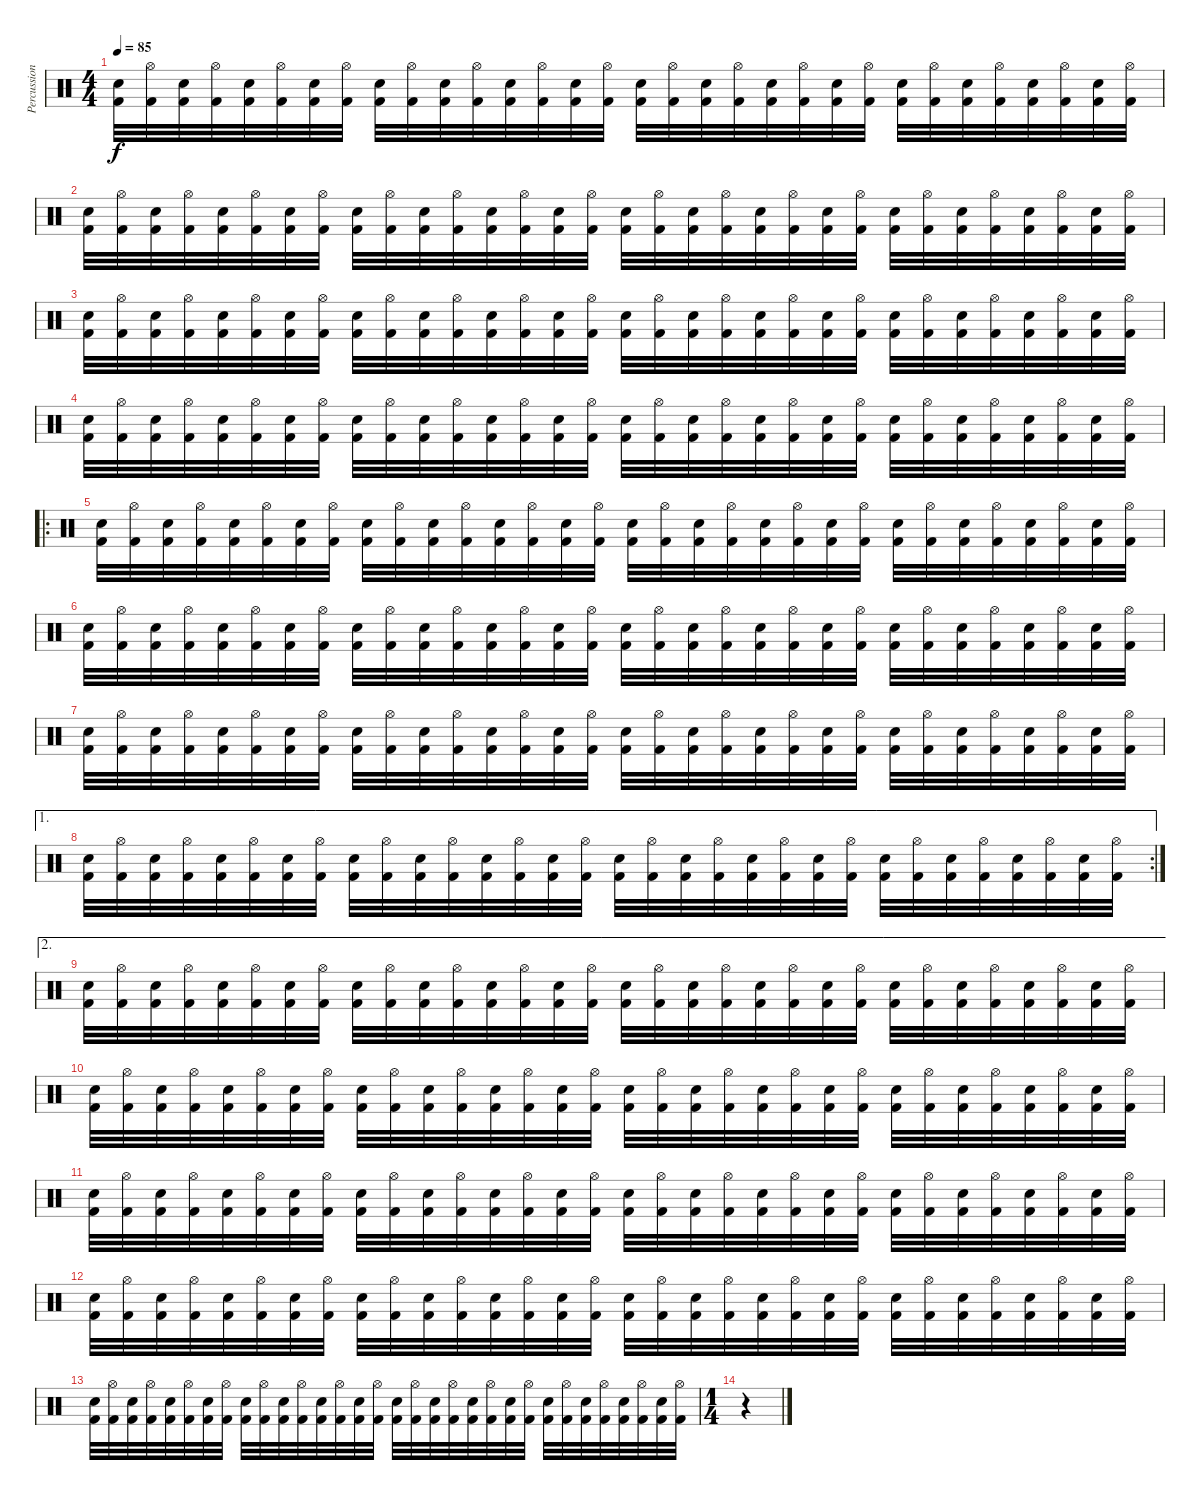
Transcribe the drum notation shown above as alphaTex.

\track ("Percussion" "Percussion") {instrument percussion}
\staff {score}
\articulation defaults
\ts (4 4)
\tempo 85
\clef neutral
\ks c
("Electric Snare (hit)" "Kick (hit) 2").32{dy f} ("Hi-Hat (open)" "Kick (hit) 2").32 ("Electric Snare (hit)" "Kick (hit) 2").32 ("Hi-Hat (open)" "Kick (hit) 2").32 ("Electric Snare (hit)" "Kick (hit) 2").32 ("Hi-Hat (open)" "Kick (hit) 2").32 ("Electric Snare (hit)" "Kick (hit) 2").32 ("Hi-Hat (open)" "Kick (hit) 2").32 ("Electric Snare (hit)" "Kick (hit) 2").32 ("Hi-Hat (open)" "Kick (hit) 2").32 ("Electric Snare (hit)" "Kick (hit) 2").32 ("Hi-Hat (open)" "Kick (hit) 2").32 ("Electric Snare (hit)" "Kick (hit) 2").32 ("Hi-Hat (open)" "Kick (hit) 2").32 ("Electric Snare (hit)" "Kick (hit) 2").32 ("Hi-Hat (open)" "Kick (hit) 2").32 ("Electric Snare (hit)" "Kick (hit) 2").32 ("Hi-Hat (open)" "Kick (hit) 2").32 ("Electric Snare (hit)" "Kick (hit) 2").32 ("Hi-Hat (open)" "Kick (hit) 2").32 ("Electric Snare (hit)" "Kick (hit) 2").32 ("Hi-Hat (open)" "Kick (hit) 2").32 ("Electric Snare (hit)" "Kick (hit) 2").32 ("Hi-Hat (open)" "Kick (hit) 2").32 ("Electric Snare (hit)" "Kick (hit) 2").32 ("Hi-Hat (open)" "Kick (hit) 2").32 ("Electric Snare (hit)" "Kick (hit) 2").32 ("Hi-Hat (open)" "Kick (hit) 2").32 ("Electric Snare (hit)" "Kick (hit) 2").32 ("Hi-Hat (open)" "Kick (hit) 2").32 ("Electric Snare (hit)" "Kick (hit) 2").32 ("Hi-Hat (open)" "Kick (hit) 2").32 |
("Electric Snare (hit)" "Kick (hit) 2").32 ("Hi-Hat (open)" "Kick (hit) 2").32 ("Electric Snare (hit)" "Kick (hit) 2").32 ("Hi-Hat (open)" "Kick (hit) 2").32 ("Electric Snare (hit)" "Kick (hit) 2").32 ("Hi-Hat (open)" "Kick (hit) 2").32 ("Electric Snare (hit)" "Kick (hit) 2").32 ("Hi-Hat (open)" "Kick (hit) 2").32 ("Electric Snare (hit)" "Kick (hit) 2").32 ("Hi-Hat (open)" "Kick (hit) 2").32 ("Electric Snare (hit)" "Kick (hit) 2").32 ("Hi-Hat (open)" "Kick (hit) 2").32 ("Electric Snare (hit)" "Kick (hit) 2").32 ("Hi-Hat (open)" "Kick (hit) 2").32 ("Electric Snare (hit)" "Kick (hit) 2").32 ("Hi-Hat (open)" "Kick (hit) 2").32 ("Electric Snare (hit)" "Kick (hit) 2").32 ("Hi-Hat (open)" "Kick (hit) 2").32 ("Electric Snare (hit)" "Kick (hit) 2").32 ("Hi-Hat (open)" "Kick (hit) 2").32 ("Electric Snare (hit)" "Kick (hit) 2").32 ("Hi-Hat (open)" "Kick (hit) 2").32 ("Electric Snare (hit)" "Kick (hit) 2").32 ("Hi-Hat (open)" "Kick (hit) 2").32 ("Electric Snare (hit)" "Kick (hit) 2").32 ("Hi-Hat (open)" "Kick (hit) 2").32 ("Electric Snare (hit)" "Kick (hit) 2").32 ("Hi-Hat (open)" "Kick (hit) 2").32 ("Electric Snare (hit)" "Kick (hit) 2").32 ("Hi-Hat (open)" "Kick (hit) 2").32 ("Electric Snare (hit)" "Kick (hit) 2").32 ("Hi-Hat (open)" "Kick (hit) 2").32 |
("Electric Snare (hit)" "Kick (hit) 2").32 ("Hi-Hat (open)" "Kick (hit) 2").32 ("Electric Snare (hit)" "Kick (hit) 2").32 ("Hi-Hat (open)" "Kick (hit) 2").32 ("Electric Snare (hit)" "Kick (hit) 2").32 ("Hi-Hat (open)" "Kick (hit) 2").32 ("Electric Snare (hit)" "Kick (hit) 2").32 ("Hi-Hat (open)" "Kick (hit) 2").32 ("Electric Snare (hit)" "Kick (hit) 2").32 ("Hi-Hat (open)" "Kick (hit) 2").32 ("Electric Snare (hit)" "Kick (hit) 2").32 ("Hi-Hat (open)" "Kick (hit) 2").32 ("Electric Snare (hit)" "Kick (hit) 2").32 ("Hi-Hat (open)" "Kick (hit) 2").32 ("Electric Snare (hit)" "Kick (hit) 2").32 ("Hi-Hat (open)" "Kick (hit) 2").32 ("Electric Snare (hit)" "Kick (hit) 2").32 ("Hi-Hat (open)" "Kick (hit) 2").32 ("Electric Snare (hit)" "Kick (hit) 2").32 ("Hi-Hat (open)" "Kick (hit) 2").32 ("Electric Snare (hit)" "Kick (hit) 2").32 ("Hi-Hat (open)" "Kick (hit) 2").32 ("Electric Snare (hit)" "Kick (hit) 2").32 ("Hi-Hat (open)" "Kick (hit) 2").32 ("Electric Snare (hit)" "Kick (hit) 2").32 ("Hi-Hat (open)" "Kick (hit) 2").32 ("Electric Snare (hit)" "Kick (hit) 2").32 ("Hi-Hat (open)" "Kick (hit) 2").32 ("Electric Snare (hit)" "Kick (hit) 2").32 ("Hi-Hat (open)" "Kick (hit) 2").32 ("Electric Snare (hit)" "Kick (hit) 2").32 ("Hi-Hat (open)" "Kick (hit) 2").32 |
("Electric Snare (hit)" "Kick (hit) 2").32 ("Hi-Hat (open)" "Kick (hit) 2").32 ("Electric Snare (hit)" "Kick (hit) 2").32 ("Hi-Hat (open)" "Kick (hit) 2").32 ("Electric Snare (hit)" "Kick (hit) 2").32 ("Hi-Hat (open)" "Kick (hit) 2").32 ("Electric Snare (hit)" "Kick (hit) 2").32 ("Hi-Hat (open)" "Kick (hit) 2").32 ("Electric Snare (hit)" "Kick (hit) 2").32 ("Hi-Hat (open)" "Kick (hit) 2").32 ("Electric Snare (hit)" "Kick (hit) 2").32 ("Hi-Hat (open)" "Kick (hit) 2").32 ("Electric Snare (hit)" "Kick (hit) 2").32 ("Hi-Hat (open)" "Kick (hit) 2").32 ("Electric Snare (hit)" "Kick (hit) 2").32 ("Hi-Hat (open)" "Kick (hit) 2").32 ("Electric Snare (hit)" "Kick (hit) 2").32 ("Hi-Hat (open)" "Kick (hit) 2").32 ("Electric Snare (hit)" "Kick (hit) 2").32 ("Hi-Hat (open)" "Kick (hit) 2").32 ("Electric Snare (hit)" "Kick (hit) 2").32 ("Hi-Hat (open)" "Kick (hit) 2").32 ("Electric Snare (hit)" "Kick (hit) 2").32 ("Hi-Hat (open)" "Kick (hit) 2").32 ("Electric Snare (hit)" "Kick (hit) 2").32 ("Hi-Hat (open)" "Kick (hit) 2").32 ("Electric Snare (hit)" "Kick (hit) 2").32 ("Hi-Hat (open)" "Kick (hit) 2").32 ("Electric Snare (hit)" "Kick (hit) 2").32 ("Hi-Hat (open)" "Kick (hit) 2").32 ("Electric Snare (hit)" "Kick (hit) 2").32 ("Hi-Hat (open)" "Kick (hit) 2").32 |
\ro
("Electric Snare (hit)" "Kick (hit) 2").32 ("Hi-Hat (open)" "Kick (hit) 2").32 ("Electric Snare (hit)" "Kick (hit) 2").32 ("Hi-Hat (open)" "Kick (hit) 2").32 ("Electric Snare (hit)" "Kick (hit) 2").32 ("Hi-Hat (open)" "Kick (hit) 2").32 ("Electric Snare (hit)" "Kick (hit) 2").32 ("Hi-Hat (open)" "Kick (hit) 2").32 ("Electric Snare (hit)" "Kick (hit) 2").32 ("Hi-Hat (open)" "Kick (hit) 2").32 ("Electric Snare (hit)" "Kick (hit) 2").32 ("Hi-Hat (open)" "Kick (hit) 2").32 ("Electric Snare (hit)" "Kick (hit) 2").32 ("Hi-Hat (open)" "Kick (hit) 2").32 ("Electric Snare (hit)" "Kick (hit) 2").32 ("Hi-Hat (open)" "Kick (hit) 2").32 ("Electric Snare (hit)" "Kick (hit) 2").32 ("Hi-Hat (open)" "Kick (hit) 2").32 ("Electric Snare (hit)" "Kick (hit) 2").32 ("Hi-Hat (open)" "Kick (hit) 2").32 ("Electric Snare (hit)" "Kick (hit) 2").32 ("Hi-Hat (open)" "Kick (hit) 2").32 ("Electric Snare (hit)" "Kick (hit) 2").32 ("Hi-Hat (open)" "Kick (hit) 2").32 ("Electric Snare (hit)" "Kick (hit) 2").32 ("Hi-Hat (open)" "Kick (hit) 2").32 ("Electric Snare (hit)" "Kick (hit) 2").32 ("Hi-Hat (open)" "Kick (hit) 2").32 ("Electric Snare (hit)" "Kick (hit) 2").32 ("Hi-Hat (open)" "Kick (hit) 2").32 ("Electric Snare (hit)" "Kick (hit) 2").32 ("Hi-Hat (open)" "Kick (hit) 2").32 |
("Electric Snare (hit)" "Kick (hit) 2").32 ("Hi-Hat (open)" "Kick (hit) 2").32 ("Electric Snare (hit)" "Kick (hit) 2").32 ("Hi-Hat (open)" "Kick (hit) 2").32 ("Electric Snare (hit)" "Kick (hit) 2").32 ("Hi-Hat (open)" "Kick (hit) 2").32 ("Electric Snare (hit)" "Kick (hit) 2").32 ("Hi-Hat (open)" "Kick (hit) 2").32 ("Electric Snare (hit)" "Kick (hit) 2").32 ("Hi-Hat (open)" "Kick (hit) 2").32 ("Electric Snare (hit)" "Kick (hit) 2").32 ("Hi-Hat (open)" "Kick (hit) 2").32 ("Electric Snare (hit)" "Kick (hit) 2").32 ("Hi-Hat (open)" "Kick (hit) 2").32 ("Electric Snare (hit)" "Kick (hit) 2").32 ("Hi-Hat (open)" "Kick (hit) 2").32 ("Electric Snare (hit)" "Kick (hit) 2").32 ("Hi-Hat (open)" "Kick (hit) 2").32 ("Electric Snare (hit)" "Kick (hit) 2").32 ("Hi-Hat (open)" "Kick (hit) 2").32 ("Electric Snare (hit)" "Kick (hit) 2").32 ("Hi-Hat (open)" "Kick (hit) 2").32 ("Electric Snare (hit)" "Kick (hit) 2").32 ("Hi-Hat (open)" "Kick (hit) 2").32 ("Electric Snare (hit)" "Kick (hit) 2").32 ("Hi-Hat (open)" "Kick (hit) 2").32 ("Electric Snare (hit)" "Kick (hit) 2").32 ("Hi-Hat (open)" "Kick (hit) 2").32 ("Electric Snare (hit)" "Kick (hit) 2").32 ("Hi-Hat (open)" "Kick (hit) 2").32 ("Electric Snare (hit)" "Kick (hit) 2").32 ("Hi-Hat (open)" "Kick (hit) 2").32 |
("Electric Snare (hit)" "Kick (hit) 2").32 ("Hi-Hat (open)" "Kick (hit) 2").32 ("Electric Snare (hit)" "Kick (hit) 2").32 ("Hi-Hat (open)" "Kick (hit) 2").32 ("Electric Snare (hit)" "Kick (hit) 2").32 ("Hi-Hat (open)" "Kick (hit) 2").32 ("Electric Snare (hit)" "Kick (hit) 2").32 ("Hi-Hat (open)" "Kick (hit) 2").32 ("Electric Snare (hit)" "Kick (hit) 2").32 ("Hi-Hat (open)" "Kick (hit) 2").32 ("Electric Snare (hit)" "Kick (hit) 2").32 ("Hi-Hat (open)" "Kick (hit) 2").32 ("Electric Snare (hit)" "Kick (hit) 2").32 ("Hi-Hat (open)" "Kick (hit) 2").32 ("Electric Snare (hit)" "Kick (hit) 2").32 ("Hi-Hat (open)" "Kick (hit) 2").32 ("Electric Snare (hit)" "Kick (hit) 2").32 ("Hi-Hat (open)" "Kick (hit) 2").32 ("Electric Snare (hit)" "Kick (hit) 2").32 ("Hi-Hat (open)" "Kick (hit) 2").32 ("Electric Snare (hit)" "Kick (hit) 2").32 ("Hi-Hat (open)" "Kick (hit) 2").32 ("Electric Snare (hit)" "Kick (hit) 2").32 ("Hi-Hat (open)" "Kick (hit) 2").32 ("Electric Snare (hit)" "Kick (hit) 2").32 ("Hi-Hat (open)" "Kick (hit) 2").32 ("Electric Snare (hit)" "Kick (hit) 2").32 ("Hi-Hat (open)" "Kick (hit) 2").32 ("Electric Snare (hit)" "Kick (hit) 2").32 ("Hi-Hat (open)" "Kick (hit) 2").32 ("Electric Snare (hit)" "Kick (hit) 2").32 ("Hi-Hat (open)" "Kick (hit) 2").32 |
\ae 1
\rc 2
("Electric Snare (hit)" "Kick (hit) 2").32 ("Hi-Hat (open)" "Kick (hit) 2").32 ("Electric Snare (hit)" "Kick (hit) 2").32 ("Hi-Hat (open)" "Kick (hit) 2").32 ("Electric Snare (hit)" "Kick (hit) 2").32 ("Hi-Hat (open)" "Kick (hit) 2").32 ("Electric Snare (hit)" "Kick (hit) 2").32 ("Hi-Hat (open)" "Kick (hit) 2").32 ("Electric Snare (hit)" "Kick (hit) 2").32 ("Hi-Hat (open)" "Kick (hit) 2").32 ("Electric Snare (hit)" "Kick (hit) 2").32 ("Hi-Hat (open)" "Kick (hit) 2").32 ("Electric Snare (hit)" "Kick (hit) 2").32 ("Hi-Hat (open)" "Kick (hit) 2").32 ("Electric Snare (hit)" "Kick (hit) 2").32 ("Hi-Hat (open)" "Kick (hit) 2").32 ("Electric Snare (hit)" "Kick (hit) 2").32 ("Hi-Hat (open)" "Kick (hit) 2").32 ("Electric Snare (hit)" "Kick (hit) 2").32 ("Hi-Hat (open)" "Kick (hit) 2").32 ("Electric Snare (hit)" "Kick (hit) 2").32 ("Hi-Hat (open)" "Kick (hit) 2").32 ("Electric Snare (hit)" "Kick (hit) 2").32 ("Hi-Hat (open)" "Kick (hit) 2").32 ("Electric Snare (hit)" "Kick (hit) 2").32 ("Hi-Hat (open)" "Kick (hit) 2").32 ("Electric Snare (hit)" "Kick (hit) 2").32 ("Hi-Hat (open)" "Kick (hit) 2").32 ("Electric Snare (hit)" "Kick (hit) 2").32 ("Hi-Hat (open)" "Kick (hit) 2").32 ("Electric Snare (hit)" "Kick (hit) 2").32 ("Hi-Hat (open)" "Kick (hit) 2").32 |
\ae 2
("Electric Snare (hit)" "Kick (hit) 2").32 ("Hi-Hat (open)" "Kick (hit) 2").32 ("Electric Snare (hit)" "Kick (hit) 2").32 ("Hi-Hat (open)" "Kick (hit) 2").32 ("Electric Snare (hit)" "Kick (hit) 2").32 ("Hi-Hat (open)" "Kick (hit) 2").32 ("Electric Snare (hit)" "Kick (hit) 2").32 ("Hi-Hat (open)" "Kick (hit) 2").32 ("Electric Snare (hit)" "Kick (hit) 2").32 ("Hi-Hat (open)" "Kick (hit) 2").32 ("Electric Snare (hit)" "Kick (hit) 2").32 ("Hi-Hat (open)" "Kick (hit) 2").32 ("Electric Snare (hit)" "Kick (hit) 2").32 ("Hi-Hat (open)" "Kick (hit) 2").32 ("Electric Snare (hit)" "Kick (hit) 2").32 ("Hi-Hat (open)" "Kick (hit) 2").32 ("Electric Snare (hit)" "Kick (hit) 2").32 ("Hi-Hat (open)" "Kick (hit) 2").32 ("Electric Snare (hit)" "Kick (hit) 2").32 ("Hi-Hat (open)" "Kick (hit) 2").32 ("Electric Snare (hit)" "Kick (hit) 2").32 ("Hi-Hat (open)" "Kick (hit) 2").32 ("Electric Snare (hit)" "Kick (hit) 2").32 ("Hi-Hat (open)" "Kick (hit) 2").32 ("Electric Snare (hit)" "Kick (hit) 2").32 ("Hi-Hat (open)" "Kick (hit) 2").32 ("Electric Snare (hit)" "Kick (hit) 2").32 ("Hi-Hat (open)" "Kick (hit) 2").32 ("Electric Snare (hit)" "Kick (hit) 2").32 ("Hi-Hat (open)" "Kick (hit) 2").32 ("Electric Snare (hit)" "Kick (hit) 2").32 ("Hi-Hat (open)" "Kick (hit) 2").32 |
("Electric Snare (hit)" "Kick (hit) 2").32 ("Hi-Hat (open)" "Kick (hit) 2").32 ("Electric Snare (hit)" "Kick (hit) 2").32 ("Hi-Hat (open)" "Kick (hit) 2").32 ("Electric Snare (hit)" "Kick (hit) 2").32 ("Hi-Hat (open)" "Kick (hit) 2").32 ("Electric Snare (hit)" "Kick (hit) 2").32 ("Hi-Hat (open)" "Kick (hit) 2").32 ("Electric Snare (hit)" "Kick (hit) 2").32 ("Hi-Hat (open)" "Kick (hit) 2").32 ("Electric Snare (hit)" "Kick (hit) 2").32 ("Hi-Hat (open)" "Kick (hit) 2").32 ("Electric Snare (hit)" "Kick (hit) 2").32 ("Hi-Hat (open)" "Kick (hit) 2").32 ("Electric Snare (hit)" "Kick (hit) 2").32 ("Hi-Hat (open)" "Kick (hit) 2").32 ("Electric Snare (hit)" "Kick (hit) 2").32 ("Hi-Hat (open)" "Kick (hit) 2").32 ("Electric Snare (hit)" "Kick (hit) 2").32 ("Hi-Hat (open)" "Kick (hit) 2").32 ("Electric Snare (hit)" "Kick (hit) 2").32 ("Hi-Hat (open)" "Kick (hit) 2").32 ("Electric Snare (hit)" "Kick (hit) 2").32 ("Hi-Hat (open)" "Kick (hit) 2").32 ("Electric Snare (hit)" "Kick (hit) 2").32 ("Hi-Hat (open)" "Kick (hit) 2").32 ("Electric Snare (hit)" "Kick (hit) 2").32 ("Hi-Hat (open)" "Kick (hit) 2").32 ("Electric Snare (hit)" "Kick (hit) 2").32 ("Hi-Hat (open)" "Kick (hit) 2").32 ("Electric Snare (hit)" "Kick (hit) 2").32 ("Hi-Hat (open)" "Kick (hit) 2").32 |
("Electric Snare (hit)" "Kick (hit) 2").32 ("Hi-Hat (open)" "Kick (hit) 2").32 ("Electric Snare (hit)" "Kick (hit) 2").32 ("Hi-Hat (open)" "Kick (hit) 2").32 ("Electric Snare (hit)" "Kick (hit) 2").32 ("Hi-Hat (open)" "Kick (hit) 2").32 ("Electric Snare (hit)" "Kick (hit) 2").32 ("Hi-Hat (open)" "Kick (hit) 2").32 ("Electric Snare (hit)" "Kick (hit) 2").32 ("Hi-Hat (open)" "Kick (hit) 2").32 ("Electric Snare (hit)" "Kick (hit) 2").32 ("Hi-Hat (open)" "Kick (hit) 2").32 ("Electric Snare (hit)" "Kick (hit) 2").32 ("Hi-Hat (open)" "Kick (hit) 2").32 ("Electric Snare (hit)" "Kick (hit) 2").32 ("Hi-Hat (open)" "Kick (hit) 2").32 ("Electric Snare (hit)" "Kick (hit) 2").32 ("Hi-Hat (open)" "Kick (hit) 2").32 ("Electric Snare (hit)" "Kick (hit) 2").32 ("Hi-Hat (open)" "Kick (hit) 2").32 ("Electric Snare (hit)" "Kick (hit) 2").32 ("Hi-Hat (open)" "Kick (hit) 2").32 ("Electric Snare (hit)" "Kick (hit) 2").32 ("Hi-Hat (open)" "Kick (hit) 2").32 ("Electric Snare (hit)" "Kick (hit) 2").32 ("Hi-Hat (open)" "Kick (hit) 2").32 ("Electric Snare (hit)" "Kick (hit) 2").32 ("Hi-Hat (open)" "Kick (hit) 2").32 ("Electric Snare (hit)" "Kick (hit) 2").32 ("Hi-Hat (open)" "Kick (hit) 2").32 ("Electric Snare (hit)" "Kick (hit) 2").32 ("Hi-Hat (open)" "Kick (hit) 2").32 |
("Electric Snare (hit)" "Kick (hit) 2").32 ("Hi-Hat (open)" "Kick (hit) 2").32 ("Electric Snare (hit)" "Kick (hit) 2").32 ("Hi-Hat (open)" "Kick (hit) 2").32 ("Electric Snare (hit)" "Kick (hit) 2").32 ("Hi-Hat (open)" "Kick (hit) 2").32 ("Electric Snare (hit)" "Kick (hit) 2").32 ("Hi-Hat (open)" "Kick (hit) 2").32 ("Electric Snare (hit)" "Kick (hit) 2").32 ("Hi-Hat (open)" "Kick (hit) 2").32 ("Electric Snare (hit)" "Kick (hit) 2").32 ("Hi-Hat (open)" "Kick (hit) 2").32 ("Electric Snare (hit)" "Kick (hit) 2").32 ("Hi-Hat (open)" "Kick (hit) 2").32 ("Electric Snare (hit)" "Kick (hit) 2").32 ("Hi-Hat (open)" "Kick (hit) 2").32 ("Electric Snare (hit)" "Kick (hit) 2").32 ("Hi-Hat (open)" "Kick (hit) 2").32 ("Electric Snare (hit)" "Kick (hit) 2").32 ("Hi-Hat (open)" "Kick (hit) 2").32 ("Electric Snare (hit)" "Kick (hit) 2").32 ("Hi-Hat (open)" "Kick (hit) 2").32 ("Electric Snare (hit)" "Kick (hit) 2").32 ("Hi-Hat (open)" "Kick (hit) 2").32 ("Electric Snare (hit)" "Kick (hit) 2").32 ("Hi-Hat (open)" "Kick (hit) 2").32 ("Electric Snare (hit)" "Kick (hit) 2").32 ("Hi-Hat (open)" "Kick (hit) 2").32 ("Electric Snare (hit)" "Kick (hit) 2").32 ("Hi-Hat (open)" "Kick (hit) 2").32 ("Electric Snare (hit)" "Kick (hit) 2").32 ("Hi-Hat (open)" "Kick (hit) 2").32 |
("Electric Snare (hit)" "Kick (hit) 2").32 ("Hi-Hat (open)" "Kick (hit) 2").32 ("Electric Snare (hit)" "Kick (hit) 2").32 ("Hi-Hat (open)" "Kick (hit) 2").32 ("Electric Snare (hit)" "Kick (hit) 2").32 ("Hi-Hat (open)" "Kick (hit) 2").32 ("Electric Snare (hit)" "Kick (hit) 2").32 ("Hi-Hat (open)" "Kick (hit) 2").32 ("Electric Snare (hit)" "Kick (hit) 2").32 ("Hi-Hat (open)" "Kick (hit) 2").32 ("Electric Snare (hit)" "Kick (hit) 2").32 ("Hi-Hat (open)" "Kick (hit) 2").32 ("Electric Snare (hit)" "Kick (hit) 2").32 ("Hi-Hat (open)" "Kick (hit) 2").32 ("Electric Snare (hit)" "Kick (hit) 2").32 ("Hi-Hat (open)" "Kick (hit) 2").32 ("Electric Snare (hit)" "Kick (hit) 2").32 ("Hi-Hat (open)" "Kick (hit) 2").32 ("Electric Snare (hit)" "Kick (hit) 2").32 ("Hi-Hat (open)" "Kick (hit) 2").32 ("Electric Snare (hit)" "Kick (hit) 2").32 ("Hi-Hat (open)" "Kick (hit) 2").32 ("Electric Snare (hit)" "Kick (hit) 2").32 ("Hi-Hat (open)" "Kick (hit) 2").32 ("Electric Snare (hit)" "Kick (hit) 2").32 ("Hi-Hat (open)" "Kick (hit) 2").32 ("Electric Snare (hit)" "Kick (hit) 2").32 ("Hi-Hat (open)" "Kick (hit) 2").32 ("Electric Snare (hit)" "Kick (hit) 2").32 ("Hi-Hat (open)" "Kick (hit) 2").32 ("Electric Snare (hit)" "Kick (hit) 2").32 ("Hi-Hat (open)" "Kick (hit) 2").32 |
\ts (1 4)
r.4
